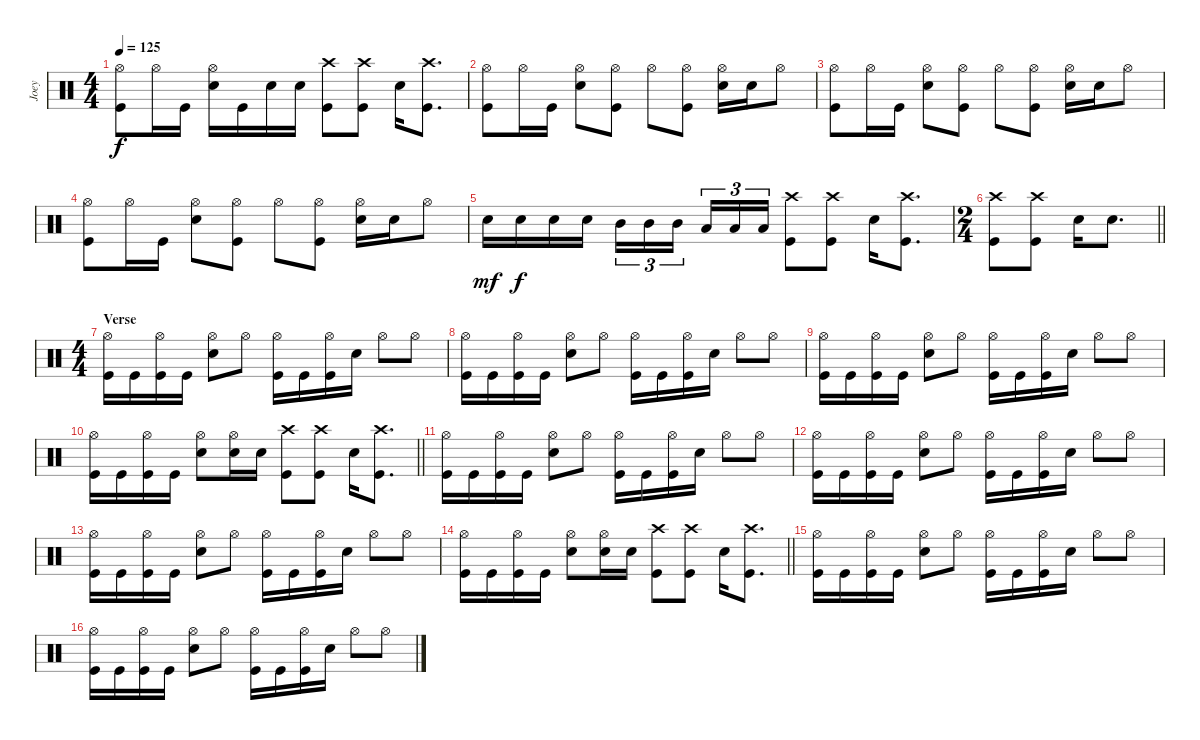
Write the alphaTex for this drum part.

\track ("Joey" "Joey") {instrument percussion}
\staff {score}
\articulation defaults
\ts (4 4)
\tempo 125
\clef neutral
\ks c
("Hi-Hat (open)" "Kick (hit)").8{dy f} "Hi-Hat (open)".16 "Kick (hit)".16 ("Hi-Hat (open)" "Snare (hit) 2").16 "Kick (hit)".16 "Snare (hit) 2".16 "Snare (hit) 2".16 ("Crash high (hit)" "Kick (hit)").8 ("Crash high (hit)" "Kick (hit)").8 "Snare (hit) 2".16 ("Crash high (hit)" "Kick (hit)").8{d} |
("Hi-Hat (open)" "Kick (hit)").8 "Hi-Hat (open)".16 "Kick (hit)".16 ("Hi-Hat (open)" "Snare (hit) 2").8 ("Hi-Hat (open)" "Kick (hit)").8 "Hi-Hat (open)".8 ("Hi-Hat (open)" "Kick (hit)").8 ("Hi-Hat (open)" "Electric Snare (hit)").16 "Electric Snare (hit)".16 "Hi-Hat (open)".8 |
("Hi-Hat (open)" "Kick (hit)").8 "Hi-Hat (open)".16 "Kick (hit)".16 ("Hi-Hat (open)" "Snare (hit) 2").8 ("Hi-Hat (open)" "Kick (hit)").8 "Hi-Hat (open)".8 ("Hi-Hat (open)" "Kick (hit)").8 ("Hi-Hat (open)" "Electric Snare (hit)").16 "Electric Snare (hit)".16 "Hi-Hat (open)".8 |
("Hi-Hat (open)" "Kick (hit)").8 "Hi-Hat (open)".16 "Kick (hit)".16 ("Hi-Hat (open)" "Snare (hit) 2").8 ("Hi-Hat (open)" "Kick (hit)").8 "Hi-Hat (open)".8 ("Hi-Hat (open)" "Kick (hit)").8 ("Hi-Hat (open)" "Electric Snare (hit)").16 "Electric Snare (hit)".16 "Hi-Hat (open)".8 |
"Snare (hit) 2".16{dy mf} "Snare (hit) 2".16{dy f} "Snare (hit) 2".16 "Snare (hit) 2".16 "Mid Tom (hit)".16{tu (3 2)} "Mid Tom (hit)".16{tu (3 2)} "Mid Tom (hit)".16{tu (3 2) beam splitsecondary} "Low Tom (hit)".16{tu (3 2)} "Low Tom (hit)".16{tu (3 2)} "Low Tom (hit)".16{tu (3 2)} ("Crash high (hit)" "Kick (hit)").8 ("Crash high (hit)" "Kick (hit)").8 "Snare (hit) 2".16 ("Crash high (hit)" "Kick (hit)").8{d} |
\ts (2 4)
\barLineRight lightlight
("Crash high (hit)" "Kick (hit)").8 ("Crash high (hit)" "Kick (hit)").8 "Snare (hit) 2".16 "Snare (hit) 2".8{d} |
\ts (4 4)
\section ("" "Verse")
("Hi-Hat (open)" "Kick (hit)").16 "Kick (hit)".16 ("Hi-Hat (open)" "Kick (hit)").16 "Kick (hit)".16 ("Hi-Hat (open)" "Snare (hit) 2").8 "Hi-Hat (open)".8 ("Hi-Hat (open)" "Kick (hit)").16 "Kick (hit)".16 ("Hi-Hat (open)" "Kick (hit)").16 "Snare (hit) 2".16 "Hi-Hat (open)".8 "Hi-Hat (open)".8 |
("Hi-Hat (open)" "Kick (hit)").16 "Kick (hit)".16 ("Hi-Hat (open)" "Kick (hit)").16 "Kick (hit)".16 ("Hi-Hat (open)" "Snare (hit) 2").8 "Hi-Hat (open)".8 ("Hi-Hat (open)" "Kick (hit)").16 "Kick (hit)".16 ("Hi-Hat (open)" "Kick (hit)").16 "Snare (hit) 2".16 "Hi-Hat (open)".8 "Hi-Hat (open)".8 |
("Hi-Hat (open)" "Kick (hit)").16 "Kick (hit)".16 ("Hi-Hat (open)" "Kick (hit)").16 "Kick (hit)".16 ("Hi-Hat (open)" "Snare (hit) 2").8 "Hi-Hat (open)".8 ("Hi-Hat (open)" "Kick (hit)").16 "Kick (hit)".16 ("Hi-Hat (open)" "Kick (hit)").16 "Snare (hit) 2".16 "Hi-Hat (open)".8 "Hi-Hat (open)".8 |
\barLineRight lightlight
("Hi-Hat (open)" "Kick (hit)").16 "Kick (hit)".16 ("Hi-Hat (open)" "Kick (hit)").16 "Kick (hit)".16 ("Hi-Hat (open)" "Snare (hit) 2").8 ("Hi-Hat (open)" "Snare (hit) 2").16 "Snare (hit) 2".16 ("Crash high (hit)" "Kick (hit)").8 ("Crash high (hit)" "Kick (hit)").8 "Snare (hit) 2".16 ("Crash high (hit)" "Kick (hit)").8{d} |
("Hi-Hat (open)" "Kick (hit)").16 "Kick (hit)".16 ("Hi-Hat (open)" "Kick (hit)").16 "Kick (hit)".16 ("Hi-Hat (open)" "Snare (hit) 2").8 "Hi-Hat (open)".8 ("Hi-Hat (open)" "Kick (hit)").16 "Kick (hit)".16 ("Hi-Hat (open)" "Kick (hit)").16 "Snare (hit) 2".16 "Hi-Hat (open)".8 "Hi-Hat (open)".8 |
("Hi-Hat (open)" "Kick (hit)").16 "Kick (hit)".16 ("Hi-Hat (open)" "Kick (hit)").16 "Kick (hit)".16 ("Hi-Hat (open)" "Snare (hit) 2").8 "Hi-Hat (open)".8 ("Hi-Hat (open)" "Kick (hit)").16 "Kick (hit)".16 ("Hi-Hat (open)" "Kick (hit)").16 "Snare (hit) 2".16 "Hi-Hat (open)".8 "Hi-Hat (open)".8 |
("Hi-Hat (open)" "Kick (hit)").16 "Kick (hit)".16 ("Hi-Hat (open)" "Kick (hit)").16 "Kick (hit)".16 ("Hi-Hat (open)" "Snare (hit) 2").8 "Hi-Hat (open)".8 ("Hi-Hat (open)" "Kick (hit)").16 "Kick (hit)".16 ("Hi-Hat (open)" "Kick (hit)").16 "Snare (hit) 2".16 "Hi-Hat (open)".8 "Hi-Hat (open)".8 |
\barLineRight lightlight
("Hi-Hat (open)" "Kick (hit)").16 "Kick (hit)".16 ("Hi-Hat (open)" "Kick (hit)").16 "Kick (hit)".16 ("Hi-Hat (open)" "Snare (hit) 2").8 ("Hi-Hat (open)" "Snare (hit) 2").16 "Snare (hit) 2".16 ("Crash high (hit)" "Kick (hit)").8 ("Crash high (hit)" "Kick (hit)").8 "Snare (hit) 2".16 ("Crash high (hit)" "Kick (hit)").8{d} |
("Hi-Hat (open)" "Kick (hit)").16 "Kick (hit)".16 ("Hi-Hat (open)" "Kick (hit)").16 "Kick (hit)".16 ("Hi-Hat (open)" "Snare (hit) 2").8 "Hi-Hat (open)".8 ("Hi-Hat (open)" "Kick (hit)").16 "Kick (hit)".16 ("Hi-Hat (open)" "Kick (hit)").16 "Snare (hit) 2".16 "Hi-Hat (open)".8 "Hi-Hat (open)".8 |
("Hi-Hat (open)" "Kick (hit)").16 "Kick (hit)".16 ("Hi-Hat (open)" "Kick (hit)").16 "Kick (hit)".16 ("Hi-Hat (open)" "Snare (hit) 2").8 "Hi-Hat (open)".8 ("Hi-Hat (open)" "Kick (hit)").16 "Kick (hit)".16 ("Hi-Hat (open)" "Kick (hit)").16 "Snare (hit) 2".16 "Hi-Hat (open)".8 "Hi-Hat (open)".8
